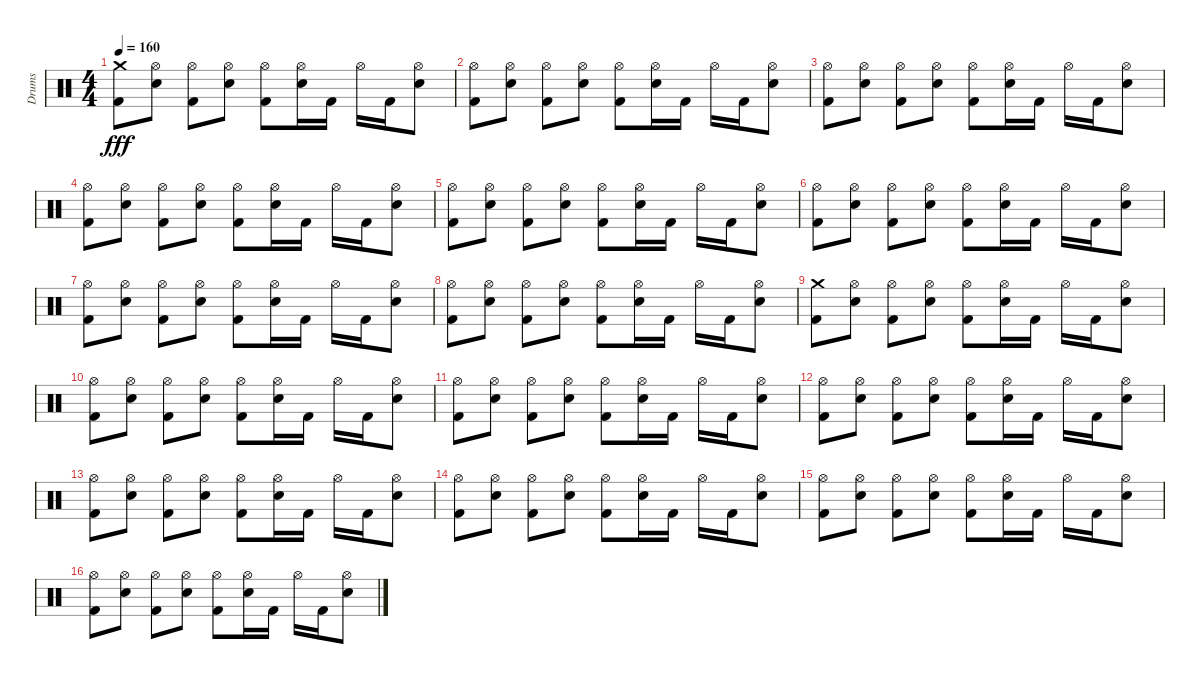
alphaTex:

\track ("Drums" "Drums") {instrument percussion}
\staff {score}
\articulation defaults
\ts (4 4)
\tempo 160
\clef neutral
\ks c
("Crash medium (hit)" "Kick (hit) 2").8{dy fff} ("Hi-Hat (open)" "Electric Snare (hit)").8 ("Hi-Hat (open)" "Kick (hit) 2").8 ("Hi-Hat (open)" "Electric Snare (hit)").8 ("Hi-Hat (open)" "Kick (hit) 2").8 ("Hi-Hat (open)" "Electric Snare (hit)").16 "Kick (hit) 2".16 "Hi-Hat (open)".16 "Kick (hit) 2".16 ("Hi-Hat (open)" "Electric Snare (hit)").8 |
("Hi-Hat (open)" "Kick (hit) 2").8 ("Hi-Hat (open)" "Electric Snare (hit)").8 ("Hi-Hat (open)" "Kick (hit) 2").8 ("Hi-Hat (open)" "Electric Snare (hit)").8 ("Hi-Hat (open)" "Kick (hit) 2").8 ("Hi-Hat (open)" "Electric Snare (hit)").16 "Kick (hit) 2".16 "Hi-Hat (open)".16 "Kick (hit) 2".16 ("Hi-Hat (open)" "Electric Snare (hit)").8 |
("Hi-Hat (open)" "Kick (hit) 2").8 ("Hi-Hat (open)" "Electric Snare (hit)").8 ("Hi-Hat (open)" "Kick (hit) 2").8 ("Hi-Hat (open)" "Electric Snare (hit)").8 ("Hi-Hat (open)" "Kick (hit) 2").8 ("Hi-Hat (open)" "Electric Snare (hit)").16 "Kick (hit) 2".16 "Hi-Hat (open)".16 "Kick (hit) 2".16 ("Hi-Hat (open)" "Electric Snare (hit)").8 |
("Hi-Hat (open)" "Kick (hit) 2").8 ("Hi-Hat (open)" "Electric Snare (hit)").8 ("Hi-Hat (open)" "Kick (hit) 2").8 ("Hi-Hat (open)" "Electric Snare (hit)").8 ("Hi-Hat (open)" "Kick (hit) 2").8 ("Hi-Hat (open)" "Electric Snare (hit)").16 "Kick (hit) 2".16 "Hi-Hat (open)".16 "Kick (hit) 2".16 ("Hi-Hat (open)" "Electric Snare (hit)").8 |
("Hi-Hat (open)" "Kick (hit) 2").8 ("Hi-Hat (open)" "Electric Snare (hit)").8 ("Hi-Hat (open)" "Kick (hit) 2").8 ("Hi-Hat (open)" "Electric Snare (hit)").8 ("Hi-Hat (open)" "Kick (hit) 2").8 ("Hi-Hat (open)" "Electric Snare (hit)").16 "Kick (hit) 2".16 "Hi-Hat (open)".16 "Kick (hit) 2".16 ("Hi-Hat (open)" "Electric Snare (hit)").8 |
("Hi-Hat (open)" "Kick (hit) 2").8 ("Hi-Hat (open)" "Electric Snare (hit)").8 ("Hi-Hat (open)" "Kick (hit) 2").8 ("Hi-Hat (open)" "Electric Snare (hit)").8 ("Hi-Hat (open)" "Kick (hit) 2").8 ("Hi-Hat (open)" "Electric Snare (hit)").16 "Kick (hit) 2".16 "Hi-Hat (open)".16 "Kick (hit) 2".16 ("Hi-Hat (open)" "Electric Snare (hit)").8 |
("Hi-Hat (open)" "Kick (hit) 2").8 ("Hi-Hat (open)" "Electric Snare (hit)").8 ("Hi-Hat (open)" "Kick (hit) 2").8 ("Hi-Hat (open)" "Electric Snare (hit)").8 ("Hi-Hat (open)" "Kick (hit) 2").8 ("Hi-Hat (open)" "Electric Snare (hit)").16 "Kick (hit) 2".16 "Hi-Hat (open)".16 "Kick (hit) 2".16 ("Hi-Hat (open)" "Electric Snare (hit)").8 |
("Hi-Hat (open)" "Kick (hit) 2").8 ("Hi-Hat (open)" "Electric Snare (hit)").8 ("Hi-Hat (open)" "Kick (hit) 2").8 ("Hi-Hat (open)" "Electric Snare (hit)").8 ("Hi-Hat (open)" "Kick (hit) 2").8 ("Hi-Hat (open)" "Electric Snare (hit)").16 "Kick (hit) 2".16 "Hi-Hat (open)".16 "Kick (hit) 2".16 ("Hi-Hat (open)" "Electric Snare (hit)").8 |
("Crash medium (hit)" "Kick (hit) 2").8 ("Hi-Hat (open)" "Electric Snare (hit)").8 ("Hi-Hat (open)" "Kick (hit) 2").8 ("Hi-Hat (open)" "Electric Snare (hit)").8 ("Hi-Hat (open)" "Kick (hit) 2").8 ("Hi-Hat (open)" "Electric Snare (hit)").16 "Kick (hit) 2".16 "Hi-Hat (open)".16 "Kick (hit) 2".16 ("Hi-Hat (open)" "Electric Snare (hit)").8 |
("Hi-Hat (open)" "Kick (hit) 2").8 ("Hi-Hat (open)" "Electric Snare (hit)").8 ("Hi-Hat (open)" "Kick (hit) 2").8 ("Hi-Hat (open)" "Electric Snare (hit)").8 ("Hi-Hat (open)" "Kick (hit) 2").8 ("Hi-Hat (open)" "Electric Snare (hit)").16 "Kick (hit) 2".16 "Hi-Hat (open)".16 "Kick (hit) 2".16 ("Hi-Hat (open)" "Electric Snare (hit)").8 |
("Hi-Hat (open)" "Kick (hit) 2").8 ("Hi-Hat (open)" "Electric Snare (hit)").8 ("Hi-Hat (open)" "Kick (hit) 2").8 ("Hi-Hat (open)" "Electric Snare (hit)").8 ("Hi-Hat (open)" "Kick (hit) 2").8 ("Hi-Hat (open)" "Electric Snare (hit)").16 "Kick (hit) 2".16 "Hi-Hat (open)".16 "Kick (hit) 2".16 ("Hi-Hat (open)" "Electric Snare (hit)").8 |
("Hi-Hat (open)" "Kick (hit) 2").8 ("Hi-Hat (open)" "Electric Snare (hit)").8 ("Hi-Hat (open)" "Kick (hit) 2").8 ("Hi-Hat (open)" "Electric Snare (hit)").8 ("Hi-Hat (open)" "Kick (hit) 2").8 ("Hi-Hat (open)" "Electric Snare (hit)").16 "Kick (hit) 2".16 "Hi-Hat (open)".16 "Kick (hit) 2".16 ("Hi-Hat (open)" "Electric Snare (hit)").8 |
("Hi-Hat (open)" "Kick (hit) 2").8 ("Hi-Hat (open)" "Electric Snare (hit)").8 ("Hi-Hat (open)" "Kick (hit) 2").8 ("Hi-Hat (open)" "Electric Snare (hit)").8 ("Hi-Hat (open)" "Kick (hit) 2").8 ("Hi-Hat (open)" "Electric Snare (hit)").16 "Kick (hit) 2".16 "Hi-Hat (open)".16 "Kick (hit) 2".16 ("Hi-Hat (open)" "Electric Snare (hit)").8 |
("Hi-Hat (open)" "Kick (hit) 2").8 ("Hi-Hat (open)" "Electric Snare (hit)").8 ("Hi-Hat (open)" "Kick (hit) 2").8 ("Hi-Hat (open)" "Electric Snare (hit)").8 ("Hi-Hat (open)" "Kick (hit) 2").8 ("Hi-Hat (open)" "Electric Snare (hit)").16 "Kick (hit) 2".16 "Hi-Hat (open)".16 "Kick (hit) 2".16 ("Hi-Hat (open)" "Electric Snare (hit)").8 |
("Hi-Hat (open)" "Kick (hit) 2").8 ("Hi-Hat (open)" "Electric Snare (hit)").8 ("Hi-Hat (open)" "Kick (hit) 2").8 ("Hi-Hat (open)" "Electric Snare (hit)").8 ("Hi-Hat (open)" "Kick (hit) 2").8 ("Hi-Hat (open)" "Electric Snare (hit)").16 "Kick (hit) 2".16 "Hi-Hat (open)".16 "Kick (hit) 2".16 ("Hi-Hat (open)" "Electric Snare (hit)").8 |
("Hi-Hat (open)" "Kick (hit) 2").8 ("Hi-Hat (open)" "Electric Snare (hit)").8 ("Hi-Hat (open)" "Kick (hit) 2").8 ("Hi-Hat (open)" "Electric Snare (hit)").8 ("Hi-Hat (open)" "Kick (hit) 2").8 ("Hi-Hat (open)" "Electric Snare (hit)").16 "Kick (hit) 2".16 "Hi-Hat (open)".16 "Kick (hit) 2".16 ("Hi-Hat (open)" "Electric Snare (hit)").8
